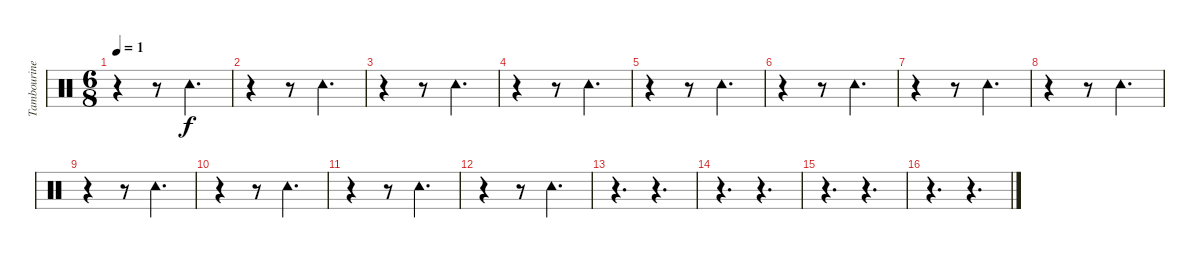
\track ("Tambourine" "Tambourine") {instrument percussion}
\staff {score}
\articulation defaults
\ts (6 8)
\tempo 1
\clef neutral
\ks c
r.4{dy f} r.8 "Tambourine (hit)".4{d} |
r.4 r.8 "Tambourine (hit)".4{d} |
r.4 r.8 "Tambourine (hit)".4{d} |
r.4 r.8 "Tambourine (hit)".4{d} |
r.4 r.8 "Tambourine (hit)".4{d} |
r.4 r.8 "Tambourine (hit)".4{d} |
r.4 r.8 "Tambourine (hit)".4{d} |
r.4 r.8 "Tambourine (hit)".4{d} |
r.4 r.8 "Tambourine (hit)".4{d} |
r.4 r.8 "Tambourine (hit)".4{d} |
r.4 r.8 "Tambourine (hit)".4{d} |
r.4 r.8 "Tambourine (hit)".4{d} |
r.4{d} r.4{d} |
r.4{d} r.4{d} |
r.4{d} r.4{d} |
r.4{d} r.4{d}
